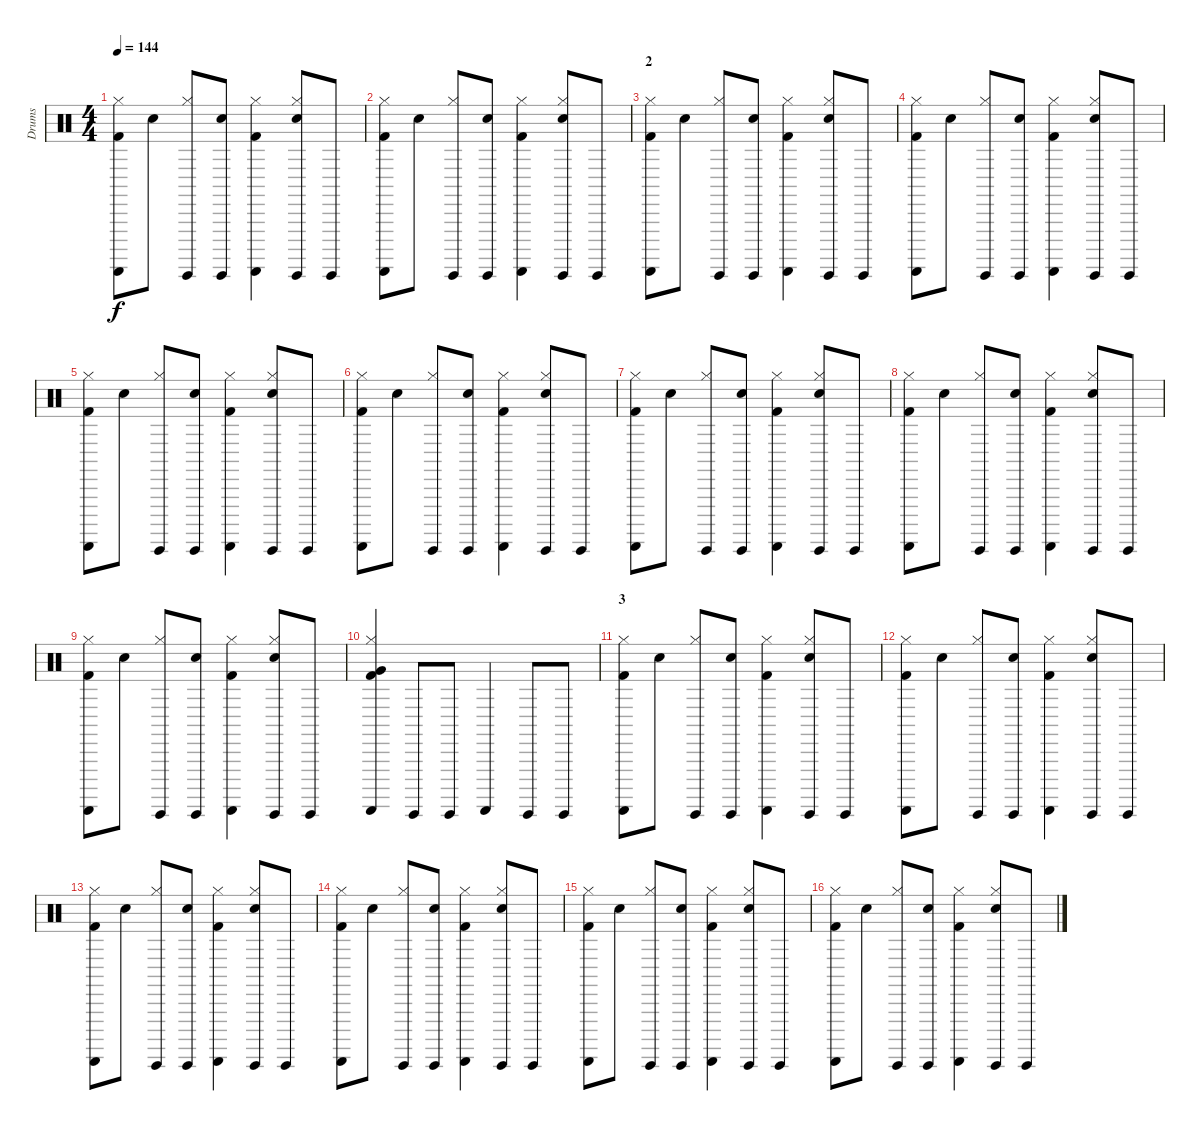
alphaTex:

\track ("Drums" "Drums") {instrument percussion}
\staff {score}
\articulation defaults
\ts (4 4)
\tempo 144
\clef neutral
\ks c
("Kick (hit) 2" "Guiro (scrap-return)" "Hi-Hat (closed)").8{dy f} "Electric Snare (hit)".8 ("Hi-Hat (closed)" "Guiro (hit)").8 ("Electric Snare (hit)" "Guiro (hit)").8 ("Hi-Hat (closed)" "Guiro (scrap-return)" "Kick (hit) 2").4 ("Guiro (hit)" "Electric Snare (hit)" "Hi-Hat (closed)").8 "Guiro (hit)".8 |
("Kick (hit) 2" "Guiro (scrap-return)" "Hi-Hat (closed)").8 "Electric Snare (hit)".8 ("Hi-Hat (closed)" "Guiro (hit)").8 ("Electric Snare (hit)" "Guiro (hit)").8 ("Hi-Hat (closed)" "Guiro (scrap-return)" "Kick (hit) 2").4 ("Guiro (hit)" "Electric Snare (hit)" "Hi-Hat (closed)").8 "Guiro (hit)".8 |
\section ("" "2")
("Kick (hit) 2" "Guiro (scrap-return)" "Hi-Hat (closed)").8 "Electric Snare (hit)".8 ("Hi-Hat (closed)" "Guiro (hit)").8 ("Electric Snare (hit)" "Guiro (hit)").8 ("Hi-Hat (closed)" "Guiro (scrap-return)" "Kick (hit) 2").4 ("Guiro (hit)" "Electric Snare (hit)" "Hi-Hat (closed)").8 "Guiro (hit)".8 |
("Kick (hit) 2" "Guiro (scrap-return)" "Hi-Hat (closed)").8 "Electric Snare (hit)".8 ("Hi-Hat (closed)" "Guiro (hit)").8 ("Electric Snare (hit)" "Guiro (hit)").8 ("Hi-Hat (closed)" "Guiro (scrap-return)" "Kick (hit) 2").4 ("Guiro (hit)" "Electric Snare (hit)" "Hi-Hat (closed)").8 "Guiro (hit)".8 |
("Kick (hit) 2" "Guiro (scrap-return)" "Hi-Hat (closed)").8 "Electric Snare (hit)".8 ("Hi-Hat (closed)" "Guiro (hit)").8 ("Electric Snare (hit)" "Guiro (hit)").8 ("Hi-Hat (closed)" "Guiro (scrap-return)" "Kick (hit) 2").4 ("Guiro (hit)" "Electric Snare (hit)" "Hi-Hat (closed)").8 "Guiro (hit)".8 |
("Kick (hit) 2" "Guiro (scrap-return)" "Hi-Hat (closed)").8 "Electric Snare (hit)".8 ("Hi-Hat (closed)" "Guiro (hit)").8 ("Electric Snare (hit)" "Guiro (hit)").8 ("Hi-Hat (closed)" "Guiro (scrap-return)" "Kick (hit) 2").4 ("Guiro (hit)" "Electric Snare (hit)" "Hi-Hat (closed)").8 "Guiro (hit)".8 |
("Kick (hit) 2" "Guiro (scrap-return)" "Hi-Hat (closed)").8 "Electric Snare (hit)".8 ("Hi-Hat (closed)" "Guiro (hit)").8 ("Electric Snare (hit)" "Guiro (hit)").8 ("Hi-Hat (closed)" "Guiro (scrap-return)" "Kick (hit) 2").4 ("Guiro (hit)" "Electric Snare (hit)" "Hi-Hat (closed)").8 "Guiro (hit)".8 |
("Kick (hit) 2" "Guiro (scrap-return)" "Hi-Hat (closed)").8 "Electric Snare (hit)".8 ("Hi-Hat (closed)" "Guiro (hit)").8 ("Electric Snare (hit)" "Guiro (hit)").8 ("Hi-Hat (closed)" "Guiro (scrap-return)" "Kick (hit) 2").4 ("Guiro (hit)" "Electric Snare (hit)" "Hi-Hat (closed)").8 "Guiro (hit)".8 |
("Kick (hit) 2" "Guiro (scrap-return)" "Hi-Hat (closed)").8 "Electric Snare (hit)".8 ("Hi-Hat (closed)" "Guiro (hit)").8 ("Electric Snare (hit)" "Guiro (hit)").8 ("Hi-Hat (closed)" "Guiro (scrap-return)" "Kick (hit) 2").4 ("Guiro (hit)" "Electric Snare (hit)" "Hi-Hat (closed)").8 "Guiro (hit)".8 |
("Guiro (scrap-return)" "Hi-Hat (closed)" "Kick (hit) 2" "Very Low Tom (hit)").4 "Guiro (hit)".8 "Guiro (hit)".8 "Guiro (scrap-return)".4 "Guiro (hit)".8 "Guiro (hit)".8 |
\section ("" "3")
("Kick (hit) 2" "Guiro (scrap-return)" "Hi-Hat (closed)").8 "Electric Snare (hit)".8 ("Hi-Hat (closed)" "Guiro (hit)").8 ("Electric Snare (hit)" "Guiro (hit)").8 ("Hi-Hat (closed)" "Guiro (scrap-return)" "Kick (hit) 2").4 ("Guiro (hit)" "Electric Snare (hit)" "Hi-Hat (closed)").8 "Guiro (hit)".8 |
("Kick (hit) 2" "Guiro (scrap-return)" "Hi-Hat (closed)").8 "Electric Snare (hit)".8 ("Hi-Hat (closed)" "Guiro (hit)").8 ("Electric Snare (hit)" "Guiro (hit)").8 ("Hi-Hat (closed)" "Guiro (scrap-return)" "Kick (hit) 2").4 ("Guiro (hit)" "Electric Snare (hit)" "Hi-Hat (closed)").8 "Guiro (hit)".8 |
("Kick (hit) 2" "Guiro (scrap-return)" "Hi-Hat (closed)").8 "Electric Snare (hit)".8 ("Hi-Hat (closed)" "Guiro (hit)").8 ("Electric Snare (hit)" "Guiro (hit)").8 ("Hi-Hat (closed)" "Guiro (scrap-return)" "Kick (hit) 2").4 ("Guiro (hit)" "Electric Snare (hit)" "Hi-Hat (closed)").8 "Guiro (hit)".8 |
("Kick (hit) 2" "Guiro (scrap-return)" "Hi-Hat (closed)").8 "Electric Snare (hit)".8 ("Hi-Hat (closed)" "Guiro (hit)").8 ("Electric Snare (hit)" "Guiro (hit)").8 ("Hi-Hat (closed)" "Guiro (scrap-return)" "Kick (hit) 2").4 ("Guiro (hit)" "Electric Snare (hit)" "Hi-Hat (closed)").8 "Guiro (hit)".8 |
("Kick (hit) 2" "Guiro (scrap-return)" "Hi-Hat (closed)").8 "Electric Snare (hit)".8 ("Hi-Hat (closed)" "Guiro (hit)").8 ("Electric Snare (hit)" "Guiro (hit)").8 ("Hi-Hat (closed)" "Guiro (scrap-return)" "Kick (hit) 2").4 ("Guiro (hit)" "Electric Snare (hit)" "Hi-Hat (closed)").8 "Guiro (hit)".8 |
("Kick (hit) 2" "Guiro (scrap-return)" "Hi-Hat (closed)").8 "Electric Snare (hit)".8 ("Hi-Hat (closed)" "Guiro (hit)").8 ("Electric Snare (hit)" "Guiro (hit)").8 ("Hi-Hat (closed)" "Guiro (scrap-return)" "Kick (hit) 2").4 ("Guiro (hit)" "Electric Snare (hit)" "Hi-Hat (closed)").8 "Guiro (hit)".8
